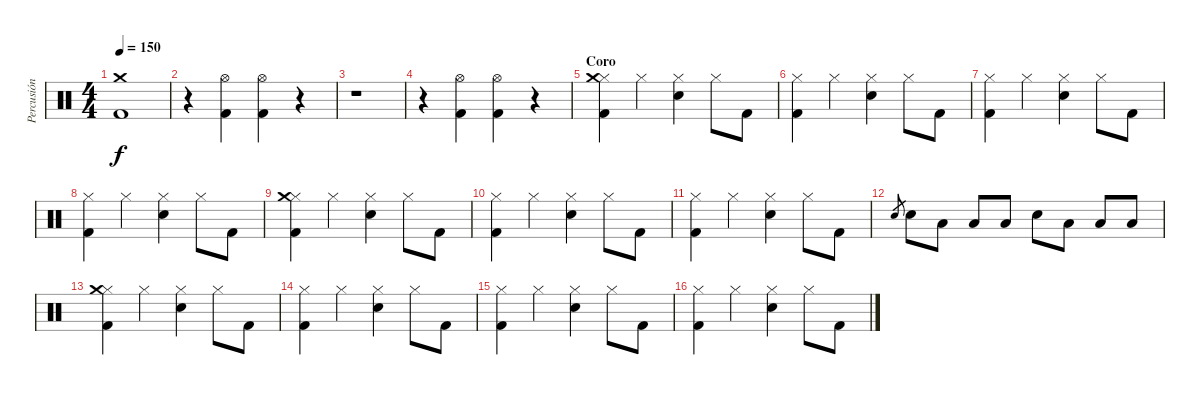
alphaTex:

\track ("Percusión" "Percusión") {instrument percussion}
\staff {score}
\articulation defaults
\ts (4 4)
\section ("" "")
\tempo 150
\clef neutral
\ks c
("Kick (hit) 2" "Crash medium (hit)").1{dy f} |
r.4 ("Hi-Hat (open)" "Kick (hit) 2").4 ("Hi-Hat (open)" "Kick (hit) 2").4 r.4 |
r.1 |
r.4 ("Hi-Hat (open)" "Kick (hit) 2").4 ("Hi-Hat (open)" "Kick (hit) 2").4 r.4 |
\section ("" "Coro")
("Hi-Hat (closed)" "Crash medium (hit)" "Kick (hit) 2").4 "Hi-Hat (closed)".4 ("Hi-Hat (closed)" "Snare (hit) 2").4 "Hi-Hat (closed)".8 "Kick (hit) 2".8 |
("Hi-Hat (closed)" "Kick (hit) 2").4 "Hi-Hat (closed)".4 ("Hi-Hat (closed)" "Snare (hit) 2").4 "Hi-Hat (closed)".8 "Kick (hit) 2".8 |
("Hi-Hat (closed)" "Kick (hit) 2").4 "Hi-Hat (closed)".4 ("Hi-Hat (closed)" "Snare (hit) 2").4 "Hi-Hat (closed)".8 "Kick (hit) 2".8 |
("Hi-Hat (closed)" "Kick (hit) 2").4 "Hi-Hat (closed)".4 ("Hi-Hat (closed)" "Snare (hit) 2").4 "Hi-Hat (closed)".8 "Kick (hit) 2".8 |
("Hi-Hat (closed)" "Crash medium (hit)" "Kick (hit) 2").4 "Hi-Hat (closed)".4 ("Hi-Hat (closed)" "Snare (hit) 2").4 "Hi-Hat (closed)".8 "Kick (hit) 2".8 |
("Hi-Hat (closed)" "Kick (hit) 2").4 "Hi-Hat (closed)".4 ("Hi-Hat (closed)" "Snare (hit) 2").4 "Hi-Hat (closed)".8 "Kick (hit) 2".8 |
("Hi-Hat (closed)" "Kick (hit) 2").4 "Hi-Hat (closed)".4 ("Hi-Hat (closed)" "Snare (hit) 2").4 "Hi-Hat (closed)".8 "Kick (hit) 2".8 |
"Snare (hit) 2".8{gr} "Snare (hit) 2".8 "Low Tom (hit)".8 "Low Tom (hit)".8 "Low Tom (hit)".8 "Snare (hit) 2".8 "Low Tom (hit)".8 "Low Tom (hit)".8 "Low Tom (hit)".8 |
("Hi-Hat (closed)" "Crash medium (hit)" "Kick (hit) 2").4 "Hi-Hat (closed)".4 ("Hi-Hat (closed)" "Snare (hit) 2").4 "Hi-Hat (closed)".8 "Kick (hit) 2".8 |
("Hi-Hat (closed)" "Kick (hit) 2").4 "Hi-Hat (closed)".4 ("Hi-Hat (closed)" "Snare (hit) 2").4 "Hi-Hat (closed)".8 "Kick (hit) 2".8 |
("Hi-Hat (closed)" "Kick (hit) 2").4 "Hi-Hat (closed)".4 ("Hi-Hat (closed)" "Snare (hit) 2").4 "Hi-Hat (closed)".8 "Kick (hit) 2".8 |
("Hi-Hat (closed)" "Kick (hit) 2").4 "Hi-Hat (closed)".4 ("Hi-Hat (closed)" "Snare (hit) 2").4 "Hi-Hat (closed)".8 "Kick (hit) 2".8
